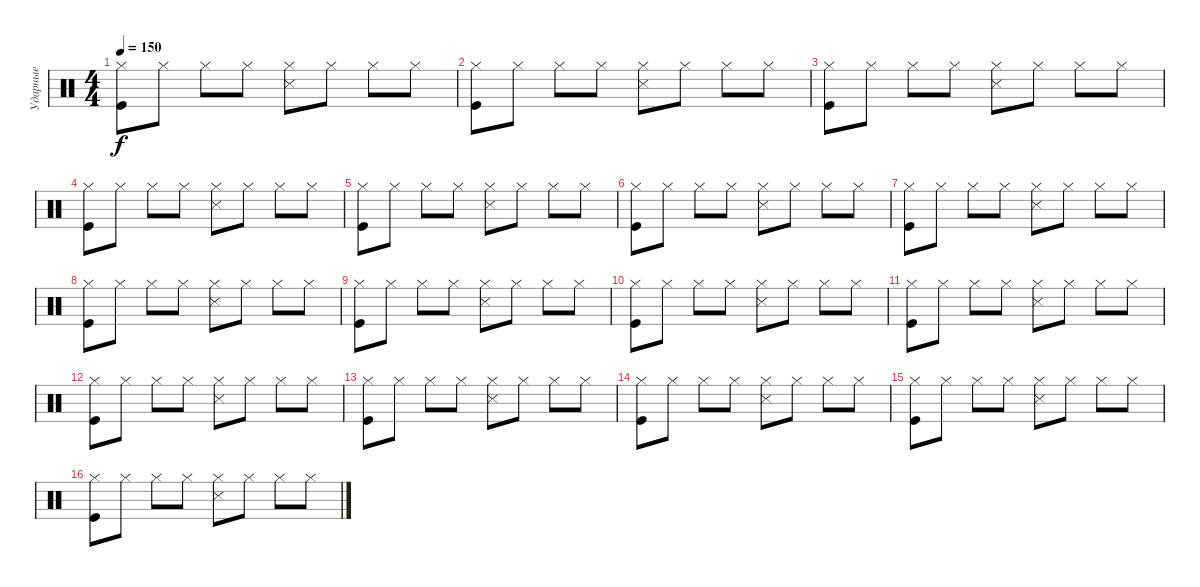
\track ("Ударные" "Ударные") {instrument percussion}
\staff {score}
\articulation defaults
\ts (4 4)
\tempo 150
\clef neutral
\ks c
("Hi-Hat (closed)" "Kick (hit)").8{dy f} "Hi-Hat (closed)".8 "Hi-Hat (closed)".8 "Hi-Hat (closed)".8 ("Hi-Hat (closed)" "Metronome (hit)").8 "Hi-Hat (closed)".8 "Hi-Hat (closed)".8 "Hi-Hat (closed)".8 |
("Hi-Hat (closed)" "Kick (hit)").8 "Hi-Hat (closed)".8 "Hi-Hat (closed)".8 "Hi-Hat (closed)".8 ("Hi-Hat (closed)" "Metronome (hit)").8 "Hi-Hat (closed)".8 "Hi-Hat (closed)".8 "Hi-Hat (closed)".8 |
("Hi-Hat (closed)" "Kick (hit)").8 "Hi-Hat (closed)".8 "Hi-Hat (closed)".8 "Hi-Hat (closed)".8 ("Hi-Hat (closed)" "Metronome (hit)").8 "Hi-Hat (closed)".8 "Hi-Hat (closed)".8 "Hi-Hat (closed)".8 |
("Hi-Hat (closed)" "Kick (hit)").8 "Hi-Hat (closed)".8 "Hi-Hat (closed)".8 "Hi-Hat (closed)".8 ("Hi-Hat (closed)" "Metronome (hit)").8 "Hi-Hat (closed)".8 "Hi-Hat (closed)".8 "Hi-Hat (closed)".8 |
("Hi-Hat (closed)" "Kick (hit)").8 "Hi-Hat (closed)".8 "Hi-Hat (closed)".8 "Hi-Hat (closed)".8 ("Hi-Hat (closed)" "Metronome (hit)").8 "Hi-Hat (closed)".8 "Hi-Hat (closed)".8 "Hi-Hat (closed)".8 |
("Hi-Hat (closed)" "Kick (hit)").8 "Hi-Hat (closed)".8 "Hi-Hat (closed)".8 "Hi-Hat (closed)".8 ("Hi-Hat (closed)" "Metronome (hit)").8 "Hi-Hat (closed)".8 "Hi-Hat (closed)".8 "Hi-Hat (closed)".8 |
("Hi-Hat (closed)" "Kick (hit)").8 "Hi-Hat (closed)".8 "Hi-Hat (closed)".8 "Hi-Hat (closed)".8 ("Hi-Hat (closed)" "Metronome (hit)").8 "Hi-Hat (closed)".8 "Hi-Hat (closed)".8 "Hi-Hat (closed)".8 |
("Hi-Hat (closed)" "Kick (hit)").8 "Hi-Hat (closed)".8 "Hi-Hat (closed)".8 "Hi-Hat (closed)".8 ("Hi-Hat (closed)" "Metronome (hit)").8 "Hi-Hat (closed)".8 "Hi-Hat (closed)".8 "Hi-Hat (closed)".8 |
("Hi-Hat (closed)" "Kick (hit)").8 "Hi-Hat (closed)".8 "Hi-Hat (closed)".8 "Hi-Hat (closed)".8 ("Hi-Hat (closed)" "Metronome (hit)").8 "Hi-Hat (closed)".8 "Hi-Hat (closed)".8 "Hi-Hat (closed)".8 |
("Hi-Hat (closed)" "Kick (hit)").8 "Hi-Hat (closed)".8 "Hi-Hat (closed)".8 "Hi-Hat (closed)".8 ("Hi-Hat (closed)" "Metronome (hit)").8 "Hi-Hat (closed)".8 "Hi-Hat (closed)".8 "Hi-Hat (closed)".8 |
("Hi-Hat (closed)" "Kick (hit)").8 "Hi-Hat (closed)".8 "Hi-Hat (closed)".8 "Hi-Hat (closed)".8 ("Hi-Hat (closed)" "Metronome (hit)").8 "Hi-Hat (closed)".8 "Hi-Hat (closed)".8 "Hi-Hat (closed)".8 |
("Hi-Hat (closed)" "Kick (hit)").8 "Hi-Hat (closed)".8 "Hi-Hat (closed)".8 "Hi-Hat (closed)".8 ("Hi-Hat (closed)" "Metronome (hit)").8 "Hi-Hat (closed)".8 "Hi-Hat (closed)".8 "Hi-Hat (closed)".8 |
("Hi-Hat (closed)" "Kick (hit)").8 "Hi-Hat (closed)".8 "Hi-Hat (closed)".8 "Hi-Hat (closed)".8 ("Hi-Hat (closed)" "Metronome (hit)").8 "Hi-Hat (closed)".8 "Hi-Hat (closed)".8 "Hi-Hat (closed)".8 |
("Hi-Hat (closed)" "Kick (hit)").8 "Hi-Hat (closed)".8 "Hi-Hat (closed)".8 "Hi-Hat (closed)".8 ("Hi-Hat (closed)" "Metronome (hit)").8 "Hi-Hat (closed)".8 "Hi-Hat (closed)".8 "Hi-Hat (closed)".8 |
("Hi-Hat (closed)" "Kick (hit)").8 "Hi-Hat (closed)".8 "Hi-Hat (closed)".8 "Hi-Hat (closed)".8 ("Hi-Hat (closed)" "Metronome (hit)").8 "Hi-Hat (closed)".8 "Hi-Hat (closed)".8 "Hi-Hat (closed)".8 |
("Hi-Hat (closed)" "Kick (hit)").8 "Hi-Hat (closed)".8 "Hi-Hat (closed)".8 "Hi-Hat (closed)".8 ("Hi-Hat (closed)" "Metronome (hit)").8 "Hi-Hat (closed)".8 "Hi-Hat (closed)".8 "Hi-Hat (closed)".8
